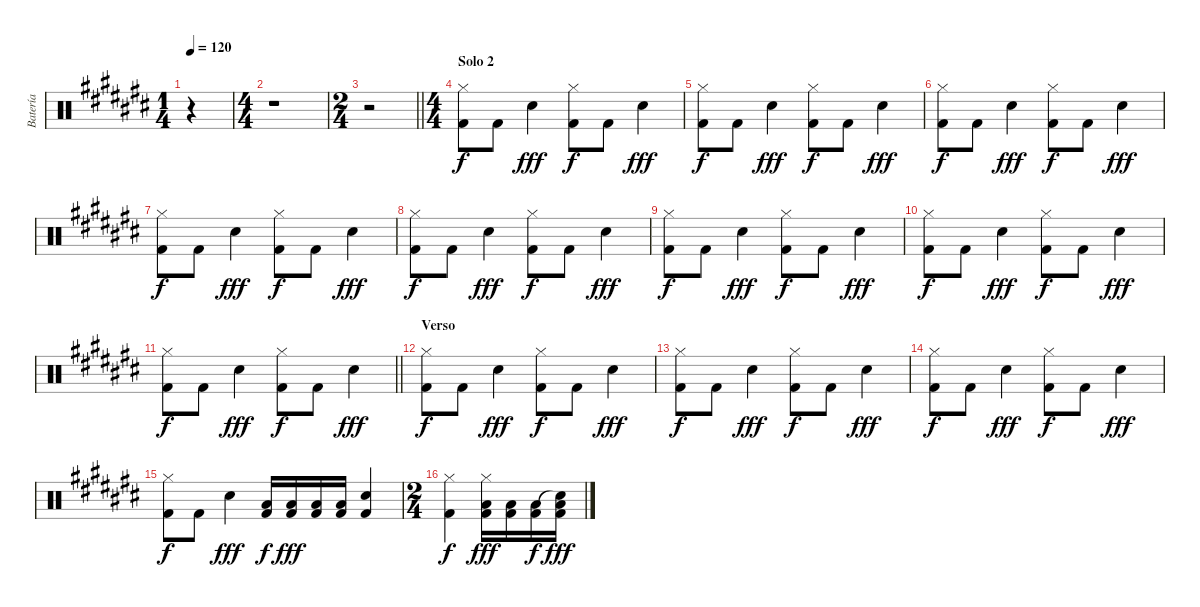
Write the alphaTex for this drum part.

\track ("Batería" "Batería") {instrument percussion}
\staff {score}
\articulation defaults
\ts (1 4)
\tempo 120
\clef neutral
\ks c#
r.4{dy f} |
\ts (4 4)
r.1 |
\ts (2 4)
\barLineRight lightlight
r.2 |
\ts (4 4)
\section ("" "Solo 2")
("Hi-Hat (closed)" "Kick (hit) 2").8 "Kick (hit) 2".8 "Snare (hit) 2".4{dy fff} ("Hi-Hat (closed)" "Kick (hit) 2").8{dy f} "Kick (hit) 2".8 "Snare (hit) 2".4{dy fff} |
("Hi-Hat (closed)" "Kick (hit) 2").8{dy f} "Kick (hit) 2".8 "Snare (hit) 2".4{dy fff} ("Hi-Hat (closed)" "Kick (hit) 2").8{dy f} "Kick (hit) 2".8 "Snare (hit) 2".4{dy fff} |
("Hi-Hat (closed)" "Kick (hit) 2").8{dy f} "Kick (hit) 2".8 "Snare (hit) 2".4{dy fff} ("Hi-Hat (closed)" "Kick (hit) 2").8{dy f} "Kick (hit) 2".8 "Snare (hit) 2".4{dy fff} |
("Hi-Hat (closed)" "Kick (hit) 2").8{dy f} "Kick (hit) 2".8 "Snare (hit) 2".4{dy fff} ("Hi-Hat (closed)" "Kick (hit) 2").8{dy f} "Kick (hit) 2".8 "Snare (hit) 2".4{dy fff} |
("Hi-Hat (closed)" "Kick (hit) 2").8{dy f} "Kick (hit) 2".8 "Snare (hit) 2".4{dy fff} ("Hi-Hat (closed)" "Kick (hit) 2").8{dy f} "Kick (hit) 2".8 "Snare (hit) 2".4{dy fff} |
("Hi-Hat (closed)" "Kick (hit) 2").8{dy f} "Kick (hit) 2".8 "Snare (hit) 2".4{dy fff} ("Hi-Hat (closed)" "Kick (hit) 2").8{dy f} "Kick (hit) 2".8 "Snare (hit) 2".4{dy fff} |
("Hi-Hat (closed)" "Kick (hit) 2").8{dy f} "Kick (hit) 2".8 "Snare (hit) 2".4{dy fff} ("Hi-Hat (closed)" "Kick (hit) 2").8{dy f} "Kick (hit) 2".8 "Snare (hit) 2".4{dy fff} |
\barLineRight lightlight
("Hi-Hat (closed)" "Kick (hit) 2").8{dy f} "Kick (hit) 2".8 "Snare (hit) 2".4{dy fff} ("Hi-Hat (closed)" "Kick (hit) 2").8{dy f} "Kick (hit) 2".8 "Snare (hit) 2".4{dy fff} |
\section ("" "Verso")
("Hi-Hat (closed)" "Kick (hit) 2").8{dy f} "Kick (hit) 2".8 "Snare (hit) 2".4{dy fff} ("Hi-Hat (closed)" "Kick (hit) 2").8{dy f} "Kick (hit) 2".8 "Snare (hit) 2".4{dy fff} |
("Hi-Hat (closed)" "Kick (hit) 2").8{dy f} "Kick (hit) 2".8 "Snare (hit) 2".4{dy fff} ("Hi-Hat (closed)" "Kick (hit) 2").8{dy f} "Kick (hit) 2".8 "Snare (hit) 2".4{dy fff} |
("Hi-Hat (closed)" "Kick (hit) 2").8{dy f} "Kick (hit) 2".8 "Snare (hit) 2".4{dy fff} ("Hi-Hat (closed)" "Kick (hit) 2").8{dy f} "Kick (hit) 2".8 "Snare (hit) 2".4{dy fff} |
("Hi-Hat (closed)" "Kick (hit) 2").8{dy f} "Kick (hit) 2".8 "Snare (hit) 2".4{dy fff} ("Low Tom (hit)" "Kick (hit) 2").16{dy f} ("Low Tom (hit)" "Kick (hit) 2").16{dy fff} ("Low Tom (hit)" "Kick (hit) 2").16 ("Low Tom (hit)" "Kick (hit) 2").16 ("Snare (hit) 2" "Kick (hit) 2").4 |
\ts (2 4)
("Hi-Hat (closed)" "Kick (hit) 2").4{dy f} ("Low Tom (hit)" "Hi-Hat (closed)" "Kick (hit) 2").16{dy fff} ("Low Tom (hit)" "Kick (hit) 2").16 ("Low Tom (hit)" "Kick (hit) 2").16{dy f} ("Low Tom (hit)" "Snare (hit)"{t} "Kick (hit) 2").16{dy fff}
